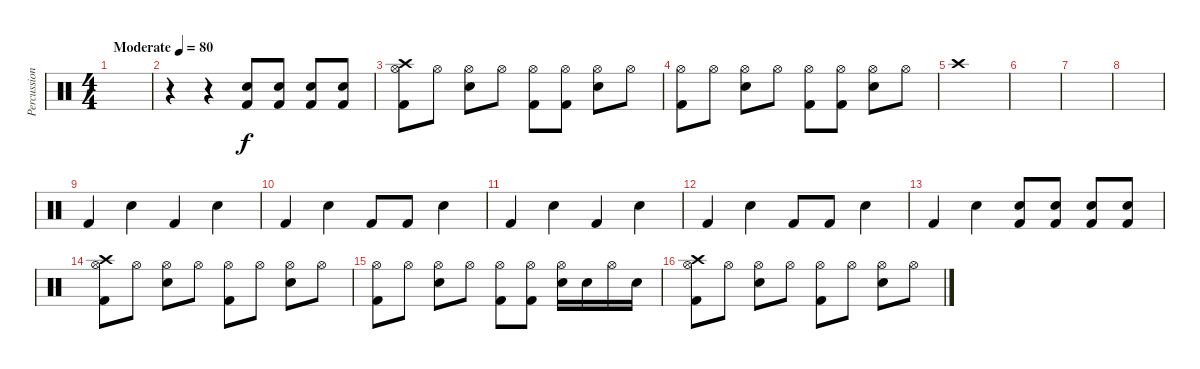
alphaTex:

\track ("Percussion" "Percussion") {instrument percussion}
\staff {score}
\articulation defaults
\ts (4 4)
\tempo (80 "Moderate")
\clef neutral
\ks c
|
r.4 r.4 ("Snare (hit) 2" "Kick (hit) 2").8 ("Snare (hit) 2" "Kick (hit) 2").8 ("Snare (hit) 2" "Kick (hit) 2").8 ("Snare (hit) 2" "Kick (hit) 2").8 |
("Kick (hit) 2" "Hi-Hat (open)" "Crash high (hit)").8 "Hi-Hat (open)".8 ("Snare (hit) 2" "Hi-Hat (open)").8 "Hi-Hat (open)".8 ("Kick (hit) 2" "Hi-Hat (open)").8 ("Kick (hit) 2" "Hi-Hat (open)").8 ("Snare (hit) 2" "Hi-Hat (open)").8 "Hi-Hat (open)".8 |
("Kick (hit) 2" "Hi-Hat (open)").8 "Hi-Hat (open)".8 ("Snare (hit) 2" "Hi-Hat (open)").8 "Hi-Hat (open)".8 ("Kick (hit) 2" "Hi-Hat (open)").8 ("Kick (hit) 2" "Hi-Hat (open)").8 ("Snare (hit) 2" "Hi-Hat (open)").8 "Hi-Hat (open)".8 |
"Crash high (hit)".1 |
|
|
|
"Kick (hit) 2".4 "Snare (hit) 2".4 "Kick (hit) 2".4 "Snare (hit) 2".4 |
"Kick (hit) 2".4 "Snare (hit) 2".4 "Kick (hit) 2".8 "Kick (hit) 2".8 "Snare (hit) 2".4 |
"Kick (hit) 2".4 "Snare (hit) 2".4 "Kick (hit) 2".4 "Snare (hit) 2".4 |
"Kick (hit) 2".4 "Snare (hit) 2".4 "Kick (hit) 2".8 "Kick (hit) 2".8 "Snare (hit) 2".4 |
"Kick (hit) 2".4 "Snare (hit) 2".4 ("Snare (hit) 2" "Kick (hit) 2").8 ("Snare (hit) 2" "Kick (hit) 2").8 ("Snare (hit) 2" "Kick (hit) 2").8 ("Snare (hit) 2" "Kick (hit) 2").8 |
("Kick (hit) 2" "Hi-Hat (open)" "Crash high (hit)").8 "Hi-Hat (open)".8 ("Snare (hit) 2" "Hi-Hat (open)").8 "Hi-Hat (open)".8 ("Kick (hit) 2" "Hi-Hat (open)").8 "Hi-Hat (open)".8 ("Snare (hit) 2" "Hi-Hat (open)").8 "Hi-Hat (open)".8 |
("Kick (hit) 2" "Hi-Hat (open)").8 "Hi-Hat (open)".8 ("Snare (hit) 2" "Hi-Hat (open)").8 "Hi-Hat (open)".8 ("Kick (hit) 2" "Hi-Hat (open)").8 ("Kick (hit) 2" "Hi-Hat (open)").8 ("Snare (hit) 2" "Hi-Hat (open)").16 "Snare (hit) 2".16 "Hi-Hat (open)".16 "Snare (hit) 2".16 |
("Kick (hit) 2" "Hi-Hat (open)" "Crash high (hit)").8 "Hi-Hat (open)".8 ("Snare (hit) 2" "Hi-Hat (open)").8 "Hi-Hat (open)".8 ("Kick (hit) 2" "Hi-Hat (open)").8 "Hi-Hat (open)".8 ("Snare (hit) 2" "Hi-Hat (open)").8 "Hi-Hat (open)".8
